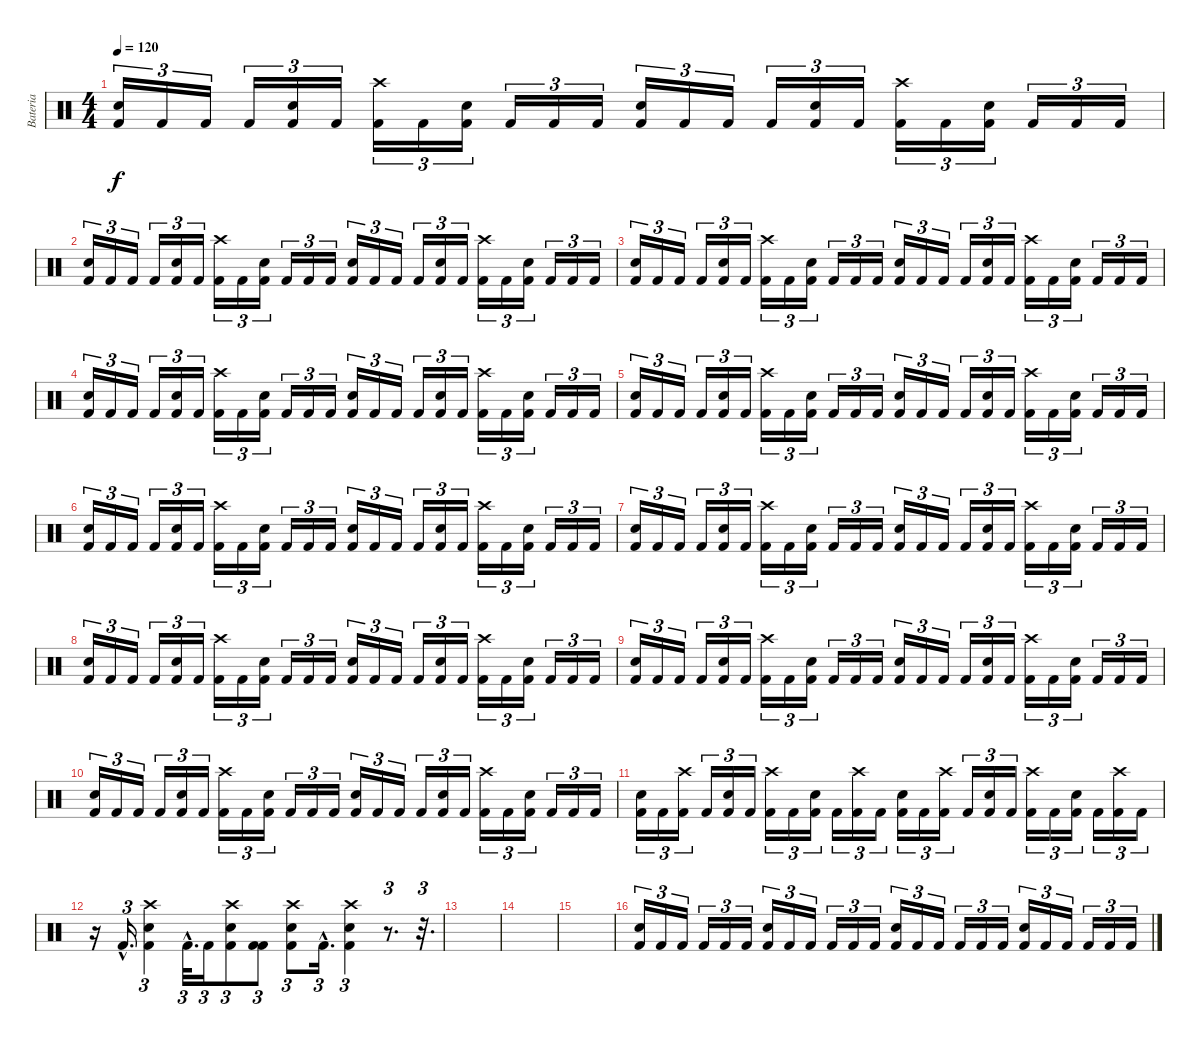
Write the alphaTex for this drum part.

\track ("Bateria" "Bateria") {instrument percussion}
\staff {score}
\articulation defaults
\ts (4 4)
\tempo 120
\clef neutral
\ks c
("Electric Snare (hit)" "Kick (hit) 2").16{tu (3 2) dy f} "Kick (hit) 2".16{tu (3 2)} "Kick (hit) 2".16{tu (3 2)} "Kick (hit) 2".16{tu (3 2)} ("Electric Snare (hit)" "Kick (hit) 2").16{tu (3 2)} "Kick (hit) 2".16{tu (3 2)} ("Kick (hit) 2" "Crash high (hit)").16{tu (3 2)} "Kick (hit) 2".16{tu (3 2)} ("Electric Snare (hit)" "Kick (hit) 2").16{tu (3 2)} "Kick (hit) 2".16{tu (3 2)} "Kick (hit) 2".16{tu (3 2)} "Kick (hit) 2".16{tu (3 2)} ("Electric Snare (hit)" "Kick (hit) 2").16{tu (3 2)} "Kick (hit) 2".16{tu (3 2)} "Kick (hit) 2".16{tu (3 2)} "Kick (hit) 2".16{tu (3 2)} ("Electric Snare (hit)" "Kick (hit) 2").16{tu (3 2)} "Kick (hit) 2".16{tu (3 2)} ("Kick (hit) 2" "Crash high (hit)").16{tu (3 2)} "Kick (hit) 2".16{tu (3 2)} ("Electric Snare (hit)" "Kick (hit) 2").16{tu (3 2)} "Kick (hit) 2".16{tu (3 2)} "Kick (hit) 2".16{tu (3 2)} "Kick (hit) 2".16{tu (3 2)} |
("Electric Snare (hit)" "Kick (hit) 2").16{tu (3 2)} "Kick (hit) 2".16{tu (3 2)} "Kick (hit) 2".16{tu (3 2)} "Kick (hit) 2".16{tu (3 2)} ("Electric Snare (hit)" "Kick (hit) 2").16{tu (3 2)} "Kick (hit) 2".16{tu (3 2)} ("Kick (hit) 2" "Crash high (hit)").16{tu (3 2)} "Kick (hit) 2".16{tu (3 2)} ("Electric Snare (hit)" "Kick (hit) 2").16{tu (3 2)} "Kick (hit) 2".16{tu (3 2)} "Kick (hit) 2".16{tu (3 2)} "Kick (hit) 2".16{tu (3 2)} ("Electric Snare (hit)" "Kick (hit) 2").16{tu (3 2)} "Kick (hit) 2".16{tu (3 2)} "Kick (hit) 2".16{tu (3 2)} "Kick (hit) 2".16{tu (3 2)} ("Electric Snare (hit)" "Kick (hit) 2").16{tu (3 2)} "Kick (hit) 2".16{tu (3 2)} ("Kick (hit) 2" "Crash high (hit)").16{tu (3 2)} "Kick (hit) 2".16{tu (3 2)} ("Electric Snare (hit)" "Kick (hit) 2").16{tu (3 2)} "Kick (hit) 2".16{tu (3 2)} "Kick (hit) 2".16{tu (3 2)} "Kick (hit) 2".16{tu (3 2)} |
("Electric Snare (hit)" "Kick (hit) 2").16{tu (3 2)} "Kick (hit) 2".16{tu (3 2)} "Kick (hit) 2".16{tu (3 2)} "Kick (hit) 2".16{tu (3 2)} ("Electric Snare (hit)" "Kick (hit) 2").16{tu (3 2)} "Kick (hit) 2".16{tu (3 2)} ("Kick (hit) 2" "Crash high (hit)").16{tu (3 2)} "Kick (hit) 2".16{tu (3 2)} ("Electric Snare (hit)" "Kick (hit) 2").16{tu (3 2)} "Kick (hit) 2".16{tu (3 2)} "Kick (hit) 2".16{tu (3 2)} "Kick (hit) 2".16{tu (3 2)} ("Electric Snare (hit)" "Kick (hit) 2").16{tu (3 2)} "Kick (hit) 2".16{tu (3 2)} "Kick (hit) 2".16{tu (3 2)} "Kick (hit) 2".16{tu (3 2)} ("Electric Snare (hit)" "Kick (hit) 2").16{tu (3 2)} "Kick (hit) 2".16{tu (3 2)} ("Kick (hit) 2" "Crash high (hit)").16{tu (3 2)} "Kick (hit) 2".16{tu (3 2)} ("Electric Snare (hit)" "Kick (hit) 2").16{tu (3 2)} "Kick (hit) 2".16{tu (3 2)} "Kick (hit) 2".16{tu (3 2)} "Kick (hit) 2".16{tu (3 2)} |
("Electric Snare (hit)" "Kick (hit) 2").16{tu (3 2)} "Kick (hit) 2".16{tu (3 2)} "Kick (hit) 2".16{tu (3 2)} "Kick (hit) 2".16{tu (3 2)} ("Electric Snare (hit)" "Kick (hit) 2").16{tu (3 2)} "Kick (hit) 2".16{tu (3 2)} ("Kick (hit) 2" "Crash high (hit)").16{tu (3 2)} "Kick (hit) 2".16{tu (3 2)} ("Electric Snare (hit)" "Kick (hit) 2").16{tu (3 2)} "Kick (hit) 2".16{tu (3 2)} "Kick (hit) 2".16{tu (3 2)} "Kick (hit) 2".16{tu (3 2)} ("Electric Snare (hit)" "Kick (hit) 2").16{tu (3 2)} "Kick (hit) 2".16{tu (3 2)} "Kick (hit) 2".16{tu (3 2)} "Kick (hit) 2".16{tu (3 2)} ("Electric Snare (hit)" "Kick (hit) 2").16{tu (3 2)} "Kick (hit) 2".16{tu (3 2)} ("Kick (hit) 2" "Crash high (hit)").16{tu (3 2)} "Kick (hit) 2".16{tu (3 2)} ("Electric Snare (hit)" "Kick (hit) 2").16{tu (3 2)} "Kick (hit) 2".16{tu (3 2)} "Kick (hit) 2".16{tu (3 2)} "Kick (hit) 2".16{tu (3 2)} |
("Electric Snare (hit)" "Kick (hit) 2").16{tu (3 2)} "Kick (hit) 2".16{tu (3 2)} "Kick (hit) 2".16{tu (3 2)} "Kick (hit) 2".16{tu (3 2)} ("Electric Snare (hit)" "Kick (hit) 2").16{tu (3 2)} "Kick (hit) 2".16{tu (3 2)} ("Kick (hit) 2" "Crash high (hit)").16{tu (3 2)} "Kick (hit) 2".16{tu (3 2)} ("Electric Snare (hit)" "Kick (hit) 2").16{tu (3 2)} "Kick (hit) 2".16{tu (3 2)} "Kick (hit) 2".16{tu (3 2)} "Kick (hit) 2".16{tu (3 2)} ("Electric Snare (hit)" "Kick (hit) 2").16{tu (3 2)} "Kick (hit) 2".16{tu (3 2)} "Kick (hit) 2".16{tu (3 2)} "Kick (hit) 2".16{tu (3 2)} ("Electric Snare (hit)" "Kick (hit) 2").16{tu (3 2)} "Kick (hit) 2".16{tu (3 2)} ("Kick (hit) 2" "Crash high (hit)").16{tu (3 2)} "Kick (hit) 2".16{tu (3 2)} ("Electric Snare (hit)" "Kick (hit) 2").16{tu (3 2)} "Kick (hit) 2".16{tu (3 2)} "Kick (hit) 2".16{tu (3 2)} "Kick (hit) 2".16{tu (3 2)} |
("Electric Snare (hit)" "Kick (hit) 2").16{tu (3 2)} "Kick (hit) 2".16{tu (3 2)} "Kick (hit) 2".16{tu (3 2)} "Kick (hit) 2".16{tu (3 2)} ("Electric Snare (hit)" "Kick (hit) 2").16{tu (3 2)} "Kick (hit) 2".16{tu (3 2)} ("Kick (hit) 2" "Crash high (hit)").16{tu (3 2)} "Kick (hit) 2".16{tu (3 2)} ("Electric Snare (hit)" "Kick (hit) 2").16{tu (3 2)} "Kick (hit) 2".16{tu (3 2)} "Kick (hit) 2".16{tu (3 2)} "Kick (hit) 2".16{tu (3 2)} ("Electric Snare (hit)" "Kick (hit) 2").16{tu (3 2)} "Kick (hit) 2".16{tu (3 2)} "Kick (hit) 2".16{tu (3 2)} "Kick (hit) 2".16{tu (3 2)} ("Electric Snare (hit)" "Kick (hit) 2").16{tu (3 2)} "Kick (hit) 2".16{tu (3 2)} ("Kick (hit) 2" "Crash high (hit)").16{tu (3 2)} "Kick (hit) 2".16{tu (3 2)} ("Electric Snare (hit)" "Kick (hit) 2").16{tu (3 2)} "Kick (hit) 2".16{tu (3 2)} "Kick (hit) 2".16{tu (3 2)} "Kick (hit) 2".16{tu (3 2)} |
("Electric Snare (hit)" "Kick (hit) 2").16{tu (3 2)} "Kick (hit) 2".16{tu (3 2)} "Kick (hit) 2".16{tu (3 2)} "Kick (hit) 2".16{tu (3 2)} ("Electric Snare (hit)" "Kick (hit) 2").16{tu (3 2)} "Kick (hit) 2".16{tu (3 2)} ("Kick (hit) 2" "Crash high (hit)").16{tu (3 2)} "Kick (hit) 2".16{tu (3 2)} ("Electric Snare (hit)" "Kick (hit) 2").16{tu (3 2)} "Kick (hit) 2".16{tu (3 2)} "Kick (hit) 2".16{tu (3 2)} "Kick (hit) 2".16{tu (3 2)} ("Electric Snare (hit)" "Kick (hit) 2").16{tu (3 2)} "Kick (hit) 2".16{tu (3 2)} "Kick (hit) 2".16{tu (3 2)} "Kick (hit) 2".16{tu (3 2)} ("Electric Snare (hit)" "Kick (hit) 2").16{tu (3 2)} "Kick (hit) 2".16{tu (3 2)} ("Kick (hit) 2" "Crash high (hit)").16{tu (3 2)} "Kick (hit) 2".16{tu (3 2)} ("Electric Snare (hit)" "Kick (hit) 2").16{tu (3 2)} "Kick (hit) 2".16{tu (3 2)} "Kick (hit) 2".16{tu (3 2)} "Kick (hit) 2".16{tu (3 2)} |
("Electric Snare (hit)" "Kick (hit) 2").16{tu (3 2)} "Kick (hit) 2".16{tu (3 2)} "Kick (hit) 2".16{tu (3 2)} "Kick (hit) 2".16{tu (3 2)} ("Electric Snare (hit)" "Kick (hit) 2").16{tu (3 2)} "Kick (hit) 2".16{tu (3 2)} ("Kick (hit) 2" "Crash high (hit)").16{tu (3 2)} "Kick (hit) 2".16{tu (3 2)} ("Electric Snare (hit)" "Kick (hit) 2").16{tu (3 2)} "Kick (hit) 2".16{tu (3 2)} "Kick (hit) 2".16{tu (3 2)} "Kick (hit) 2".16{tu (3 2)} ("Electric Snare (hit)" "Kick (hit) 2").16{tu (3 2)} "Kick (hit) 2".16{tu (3 2)} "Kick (hit) 2".16{tu (3 2)} "Kick (hit) 2".16{tu (3 2)} ("Electric Snare (hit)" "Kick (hit) 2").16{tu (3 2)} "Kick (hit) 2".16{tu (3 2)} ("Kick (hit) 2" "Crash high (hit)").16{tu (3 2)} "Kick (hit) 2".16{tu (3 2)} ("Electric Snare (hit)" "Kick (hit) 2").16{tu (3 2)} "Kick (hit) 2".16{tu (3 2)} "Kick (hit) 2".16{tu (3 2)} "Kick (hit) 2".16{tu (3 2)} |
("Electric Snare (hit)" "Kick (hit) 2").16{tu (3 2)} "Kick (hit) 2".16{tu (3 2)} "Kick (hit) 2".16{tu (3 2)} "Kick (hit) 2".16{tu (3 2)} ("Electric Snare (hit)" "Kick (hit) 2").16{tu (3 2)} "Kick (hit) 2".16{tu (3 2)} ("Kick (hit) 2" "Crash high (hit)").16{tu (3 2)} "Kick (hit) 2".16{tu (3 2)} ("Electric Snare (hit)" "Kick (hit) 2").16{tu (3 2)} "Kick (hit) 2".16{tu (3 2)} "Kick (hit) 2".16{tu (3 2)} "Kick (hit) 2".16{tu (3 2)} ("Electric Snare (hit)" "Kick (hit) 2").16{tu (3 2)} "Kick (hit) 2".16{tu (3 2)} "Kick (hit) 2".16{tu (3 2)} "Kick (hit) 2".16{tu (3 2)} ("Electric Snare (hit)" "Kick (hit) 2").16{tu (3 2)} "Kick (hit) 2".16{tu (3 2)} ("Kick (hit) 2" "Crash high (hit)").16{tu (3 2)} "Kick (hit) 2".16{tu (3 2)} ("Electric Snare (hit)" "Kick (hit) 2").16{tu (3 2)} "Kick (hit) 2".16{tu (3 2)} "Kick (hit) 2".16{tu (3 2)} "Kick (hit) 2".16{tu (3 2)} |
("Electric Snare (hit)" "Kick (hit) 2").16{tu (3 2)} "Kick (hit) 2".16{tu (3 2)} "Kick (hit) 2".16{tu (3 2)} "Kick (hit) 2".16{tu (3 2)} ("Electric Snare (hit)" "Kick (hit) 2").16{tu (3 2)} "Kick (hit) 2".16{tu (3 2)} ("Kick (hit) 2" "Crash high (hit)").16{tu (3 2)} "Kick (hit) 2".16{tu (3 2)} ("Electric Snare (hit)" "Kick (hit) 2").16{tu (3 2)} "Kick (hit) 2".16{tu (3 2)} "Kick (hit) 2".16{tu (3 2)} "Kick (hit) 2".16{tu (3 2)} ("Electric Snare (hit)" "Kick (hit) 2").16{tu (3 2)} "Kick (hit) 2".16{tu (3 2)} "Kick (hit) 2".16{tu (3 2)} "Kick (hit) 2".16{tu (3 2)} ("Electric Snare (hit)" "Kick (hit) 2").16{tu (3 2)} "Kick (hit) 2".16{tu (3 2)} ("Kick (hit) 2" "Crash high (hit)").16{tu (3 2)} "Kick (hit) 2".16{tu (3 2)} ("Electric Snare (hit)" "Kick (hit) 2").16{tu (3 2)} "Kick (hit) 2".16{tu (3 2)} "Kick (hit) 2".16{tu (3 2)} "Kick (hit) 2".16{tu (3 2)} |
("Electric Snare (hit)" "Kick (hit) 2").16{tu (3 2)} "Kick (hit) 2".16{tu (3 2)} ("Kick (hit) 2" "Crash high (hit)").16{tu (3 2)} "Kick (hit) 2".16{tu (3 2)} ("Electric Snare (hit)" "Kick (hit) 2").16{tu (3 2)} "Kick (hit) 2".16{tu (3 2)} ("Kick (hit) 2" "Crash high (hit)").16{tu (3 2)} "Kick (hit) 2".16{tu (3 2)} ("Electric Snare (hit)" "Kick (hit) 2").16{tu (3 2)} "Kick (hit) 2".16{tu (3 2)} ("Kick (hit) 2" "Crash high (hit)").16{tu (3 2)} "Kick (hit) 2".16{tu (3 2)} ("Electric Snare (hit)" "Kick (hit) 2").16{tu (3 2)} "Kick (hit) 2".16{tu (3 2)} ("Kick (hit) 2" "Crash high (hit)").16{tu (3 2)} "Kick (hit) 2".16{tu (3 2)} ("Electric Snare (hit)" "Kick (hit) 2").16{tu (3 2)} "Kick (hit) 2".16{tu (3 2)} ("Kick (hit) 2" "Crash high (hit)").16{tu (3 2)} "Kick (hit) 2".16{tu (3 2)} ("Electric Snare (hit)" "Kick (hit) 2").16{tu (3 2)} "Kick (hit) 2".16{tu (3 2)} ("Kick (hit) 2" "Crash high (hit)").16{tu (3 2)} "Kick (hit) 2".16{tu (3 2)} |
r.16 "Kick (hit) 2"{hac}.16{d tu (3 2)} ("Electric Snare (hit)" "Kick (hit) 2" "Crash high (hit)").4{tu (3 2)} "Kick (hit) 2"{hac}.32{d tu (3 2)} "Kick (hit) 2".16{tu (3 2)} ("Electric Snare (hit)" "Kick (hit) 2" "Crash high (hit)").8{tu (3 2)} ("Kick (hit) 2" "Kick (hit) 2").8{tu (3 2)} ("Electric Snare (hit)" "Kick (hit) 2" "Crash high (hit)").8{tu (3 2)} "Kick (hit) 2"{hac}.16{d tu (3 2)} ("Electric Snare (hit)" "Kick (hit) 2" "Crash high (hit)").4{tu (3 2)} r.8{d tu (3 2)} r.32{d tu (3 2)} |
|
|
|
("Electric Snare (hit)" "Kick (hit) 2").16{tu (3 2)} "Kick (hit) 2".16{tu (3 2)} "Kick (hit) 2".16{tu (3 2)} "Kick (hit) 2".16{tu (3 2)} "Kick (hit) 2".16{tu (3 2)} "Kick (hit) 2".16{tu (3 2)} ("Electric Snare (hit)" "Kick (hit) 2").16{tu (3 2)} "Kick (hit) 2".16{tu (3 2)} "Kick (hit) 2".16{tu (3 2)} "Kick (hit) 2".16{tu (3 2)} "Kick (hit) 2".16{tu (3 2)} "Kick (hit) 2".16{tu (3 2)} ("Electric Snare (hit)" "Kick (hit) 2").16{tu (3 2)} "Kick (hit) 2".16{tu (3 2)} "Kick (hit) 2".16{tu (3 2)} "Kick (hit) 2".16{tu (3 2)} "Kick (hit) 2".16{tu (3 2)} "Kick (hit) 2".16{tu (3 2)} ("Electric Snare (hit)" "Kick (hit) 2").16{tu (3 2)} "Kick (hit) 2".16{tu (3 2)} "Kick (hit) 2".16{tu (3 2)} "Kick (hit) 2".16{tu (3 2)} "Kick (hit) 2".16{tu (3 2)} "Kick (hit) 2".16{tu (3 2)}
